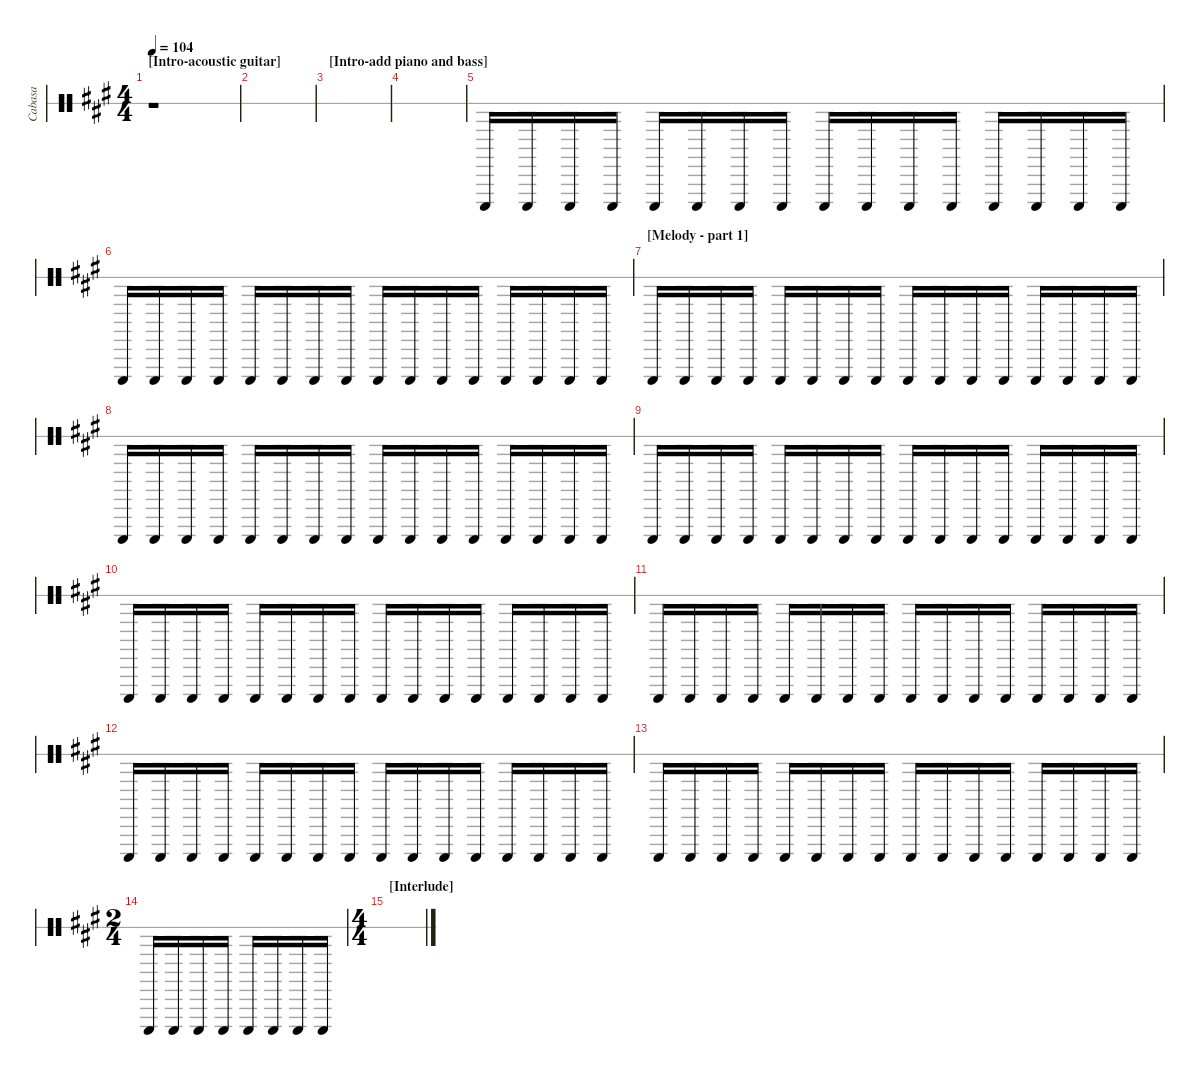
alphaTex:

\hideDynamics
\bracketExtendMode nobrackets
\otherSystemsTrackNameOrientation horizontal
\track ("Cabasa" "Cabasa") {instrument percussion}
\staff {score 1}
\articulation defaults
\ts (4 4)
\beaming (8 2 2 2 2)
\section ("" "[Intro-acoustic guitar]")
\tempo 104
\clef neutral
\ks a
r.1{dy f beam Down} |
|
\section ("" "[Intro-add piano and bass]")
|
|
"Cabasa (hit)"{acc forcenatural}.16{beam Up} "Cabasa (hit)"{acc forcenatural}.16{beam Up} "Cabasa (hit)"{acc forcenatural}.16{beam Up} "Cabasa (hit)"{acc forcenatural}.16{beam Up} "Cabasa (hit)"{acc forcenatural}.16{beam Up} "Cabasa (hit)"{acc forcenatural}.16{beam Up} "Cabasa (hit)"{acc forcenatural}.16{beam Up} "Cabasa (hit)"{acc forcenatural}.16{beam Up} "Cabasa (hit)"{acc forcenatural}.16{beam Up} "Cabasa (hit)"{acc forcenatural}.16{beam Up} "Cabasa (hit)"{acc forcenatural}.16{beam Up} "Cabasa (hit)"{acc forcenatural}.16{beam Up} "Cabasa (hit)"{acc forcenatural}.16{beam Up} "Cabasa (hit)"{acc forcenatural}.16{beam Up} "Cabasa (hit)"{acc forcenatural}.16{beam Up} "Cabasa (hit)"{acc forcenatural}.16{beam Up} |
"Cabasa (hit)"{acc forcenatural}.16{beam Up} "Cabasa (hit)"{acc forcenatural}.16{beam Up} "Cabasa (hit)"{acc forcenatural}.16{beam Up} "Cabasa (hit)"{acc forcenatural}.16{beam Up} "Cabasa (hit)"{acc forcenatural}.16{beam Up} "Cabasa (hit)"{acc forcenatural}.16{beam Up} "Cabasa (hit)"{acc forcenatural}.16{beam Up} "Cabasa (hit)"{acc forcenatural}.16{beam Up} "Cabasa (hit)"{acc forcenatural}.16{beam Up} "Cabasa (hit)"{acc forcenatural}.16{beam Up} "Cabasa (hit)"{acc forcenatural}.16{beam Up} "Cabasa (hit)"{acc forcenatural}.16{beam Up} "Cabasa (hit)"{acc forcenatural}.16{beam Up} "Cabasa (hit)"{acc forcenatural}.16{beam Up} "Cabasa (hit)"{acc forcenatural}.16{beam Up} "Cabasa (hit)"{acc forcenatural}.16{beam Up} |
\section ("" "[Melody - part 1]")
"Cabasa (hit)"{acc forcenatural}.16{beam Up} "Cabasa (hit)"{acc forcenatural}.16{beam Up} "Cabasa (hit)"{acc forcenatural}.16{beam Up} "Cabasa (hit)"{acc forcenatural}.16{beam Up} "Cabasa (hit)"{acc forcenatural}.16{beam Up} "Cabasa (hit)"{acc forcenatural}.16{beam Up} "Cabasa (hit)"{acc forcenatural}.16{beam Up} "Cabasa (hit)"{acc forcenatural}.16{beam Up} "Cabasa (hit)"{acc forcenatural}.16{beam Up} "Cabasa (hit)"{acc forcenatural}.16{beam Up} "Cabasa (hit)"{acc forcenatural}.16{beam Up} "Cabasa (hit)"{acc forcenatural}.16{beam Up} "Cabasa (hit)"{acc forcenatural}.16{beam Up} "Cabasa (hit)"{acc forcenatural}.16{beam Up} "Cabasa (hit)"{acc forcenatural}.16{beam Up} "Cabasa (hit)"{acc forcenatural}.16{beam Up} |
"Cabasa (hit)"{acc forcenatural}.16{beam Up} "Cabasa (hit)"{acc forcenatural}.16{beam Up} "Cabasa (hit)"{acc forcenatural}.16{beam Up} "Cabasa (hit)"{acc forcenatural}.16{beam Up} "Cabasa (hit)"{acc forcenatural}.16{beam Up} "Cabasa (hit)"{acc forcenatural}.16{beam Up} "Cabasa (hit)"{acc forcenatural}.16{beam Up} "Cabasa (hit)"{acc forcenatural}.16{beam Up} "Cabasa (hit)"{acc forcenatural}.16{beam Up} "Cabasa (hit)"{acc forcenatural}.16{beam Up} "Cabasa (hit)"{acc forcenatural}.16{beam Up} "Cabasa (hit)"{acc forcenatural}.16{beam Up} "Cabasa (hit)"{acc forcenatural}.16{beam Up} "Cabasa (hit)"{acc forcenatural}.16{beam Up} "Cabasa (hit)"{acc forcenatural}.16{beam Up} "Cabasa (hit)"{acc forcenatural}.16{beam Up} |
"Cabasa (hit)"{acc forcenatural}.16{beam Up} "Cabasa (hit)"{acc forcenatural}.16{beam Up} "Cabasa (hit)"{acc forcenatural}.16{beam Up} "Cabasa (hit)"{acc forcenatural}.16{beam Up} "Cabasa (hit)"{acc forcenatural}.16{beam Up} "Cabasa (hit)"{acc forcenatural}.16{beam Up} "Cabasa (hit)"{acc forcenatural}.16{beam Up} "Cabasa (hit)"{acc forcenatural}.16{beam Up} "Cabasa (hit)"{acc forcenatural}.16{beam Up} "Cabasa (hit)"{acc forcenatural}.16{beam Up} "Cabasa (hit)"{acc forcenatural}.16{beam Up} "Cabasa (hit)"{acc forcenatural}.16{beam Up} "Cabasa (hit)"{acc forcenatural}.16{beam Up} "Cabasa (hit)"{acc forcenatural}.16{beam Up} "Cabasa (hit)"{acc forcenatural}.16{beam Up} "Cabasa (hit)"{acc forcenatural}.16{beam Up} |
"Cabasa (hit)"{acc forcenatural}.16{beam Up} "Cabasa (hit)"{acc forcenatural}.16{beam Up} "Cabasa (hit)"{acc forcenatural}.16{beam Up} "Cabasa (hit)"{acc forcenatural}.16{beam Up} "Cabasa (hit)"{acc forcenatural}.16{beam Up} "Cabasa (hit)"{acc forcenatural}.16{beam Up} "Cabasa (hit)"{acc forcenatural}.16{beam Up} "Cabasa (hit)"{acc forcenatural}.16{beam Up} "Cabasa (hit)"{acc forcenatural}.16{beam Up} "Cabasa (hit)"{acc forcenatural}.16{beam Up} "Cabasa (hit)"{acc forcenatural}.16{beam Up} "Cabasa (hit)"{acc forcenatural}.16{beam Up} "Cabasa (hit)"{acc forcenatural}.16{beam Up} "Cabasa (hit)"{acc forcenatural}.16{beam Up} "Cabasa (hit)"{acc forcenatural}.16{beam Up} "Cabasa (hit)"{acc forcenatural}.16{beam Up} |
"Cabasa (hit)"{acc forcenatural}.16{beam Up} "Cabasa (hit)"{acc forcenatural}.16{beam Up} "Cabasa (hit)"{acc forcenatural}.16{beam Up} "Cabasa (hit)"{acc forcenatural}.16{beam Up} "Cabasa (hit)"{acc forcenatural}.16{beam Up} "Cabasa (hit)"{acc forcenatural}.16{beam Up} "Cabasa (hit)"{acc forcenatural}.16{beam Up} "Cabasa (hit)"{acc forcenatural}.16{beam Up} "Cabasa (hit)"{acc forcenatural}.16{beam Up} "Cabasa (hit)"{acc forcenatural}.16{beam Up} "Cabasa (hit)"{acc forcenatural}.16{beam Up} "Cabasa (hit)"{acc forcenatural}.16{beam Up} "Cabasa (hit)"{acc forcenatural}.16{beam Up} "Cabasa (hit)"{acc forcenatural}.16{beam Up} "Cabasa (hit)"{acc forcenatural}.16{beam Up} "Cabasa (hit)"{acc forcenatural}.16{beam Up} |
"Cabasa (hit)"{acc forcenatural}.16{beam Up} "Cabasa (hit)"{acc forcenatural}.16{beam Up} "Cabasa (hit)"{acc forcenatural}.16{beam Up} "Cabasa (hit)"{acc forcenatural}.16{beam Up} "Cabasa (hit)"{acc forcenatural}.16{beam Up} "Cabasa (hit)"{acc forcenatural}.16{beam Up} "Cabasa (hit)"{acc forcenatural}.16{beam Up} "Cabasa (hit)"{acc forcenatural}.16{beam Up} "Cabasa (hit)"{acc forcenatural}.16{beam Up} "Cabasa (hit)"{acc forcenatural}.16{beam Up} "Cabasa (hit)"{acc forcenatural}.16{beam Up} "Cabasa (hit)"{acc forcenatural}.16{beam Up} "Cabasa (hit)"{acc forcenatural}.16{beam Up} "Cabasa (hit)"{acc forcenatural}.16{beam Up} "Cabasa (hit)"{acc forcenatural}.16{beam Up} "Cabasa (hit)"{acc forcenatural}.16{beam Up} |
"Cabasa (hit)"{acc forcenatural}.16{beam Up} "Cabasa (hit)"{acc forcenatural}.16{beam Up} "Cabasa (hit)"{acc forcenatural}.16{beam Up} "Cabasa (hit)"{acc forcenatural}.16{beam Up} "Cabasa (hit)"{acc forcenatural}.16{beam Up} "Cabasa (hit)"{acc forcenatural}.16{beam Up} "Cabasa (hit)"{acc forcenatural}.16{beam Up} "Cabasa (hit)"{acc forcenatural}.16{beam Up} "Cabasa (hit)"{acc forcenatural}.16{beam Up} "Cabasa (hit)"{acc forcenatural}.16{beam Up} "Cabasa (hit)"{acc forcenatural}.16{beam Up} "Cabasa (hit)"{acc forcenatural}.16{beam Up} "Cabasa (hit)"{acc forcenatural}.16{beam Up} "Cabasa (hit)"{acc forcenatural}.16{beam Up} "Cabasa (hit)"{acc forcenatural}.16{beam Up} "Cabasa (hit)"{acc forcenatural}.16{beam Up} |
\ts (2 4)
"Cabasa (hit)"{acc forcenatural}.16{beam Up} "Cabasa (hit)"{acc forcenatural}.16{beam Up} "Cabasa (hit)"{acc forcenatural}.16{beam Up} "Cabasa (hit)"{acc forcenatural}.16{beam Up} "Cabasa (hit)"{acc forcenatural}.16{beam Up} "Cabasa (hit)"{acc forcenatural}.16{beam Up} "Cabasa (hit)"{acc forcenatural}.16{beam Up} "Cabasa (hit)"{acc forcenatural}.16{beam Up} |
\ts (4 4)
\section ("" "[Interlude] ")
